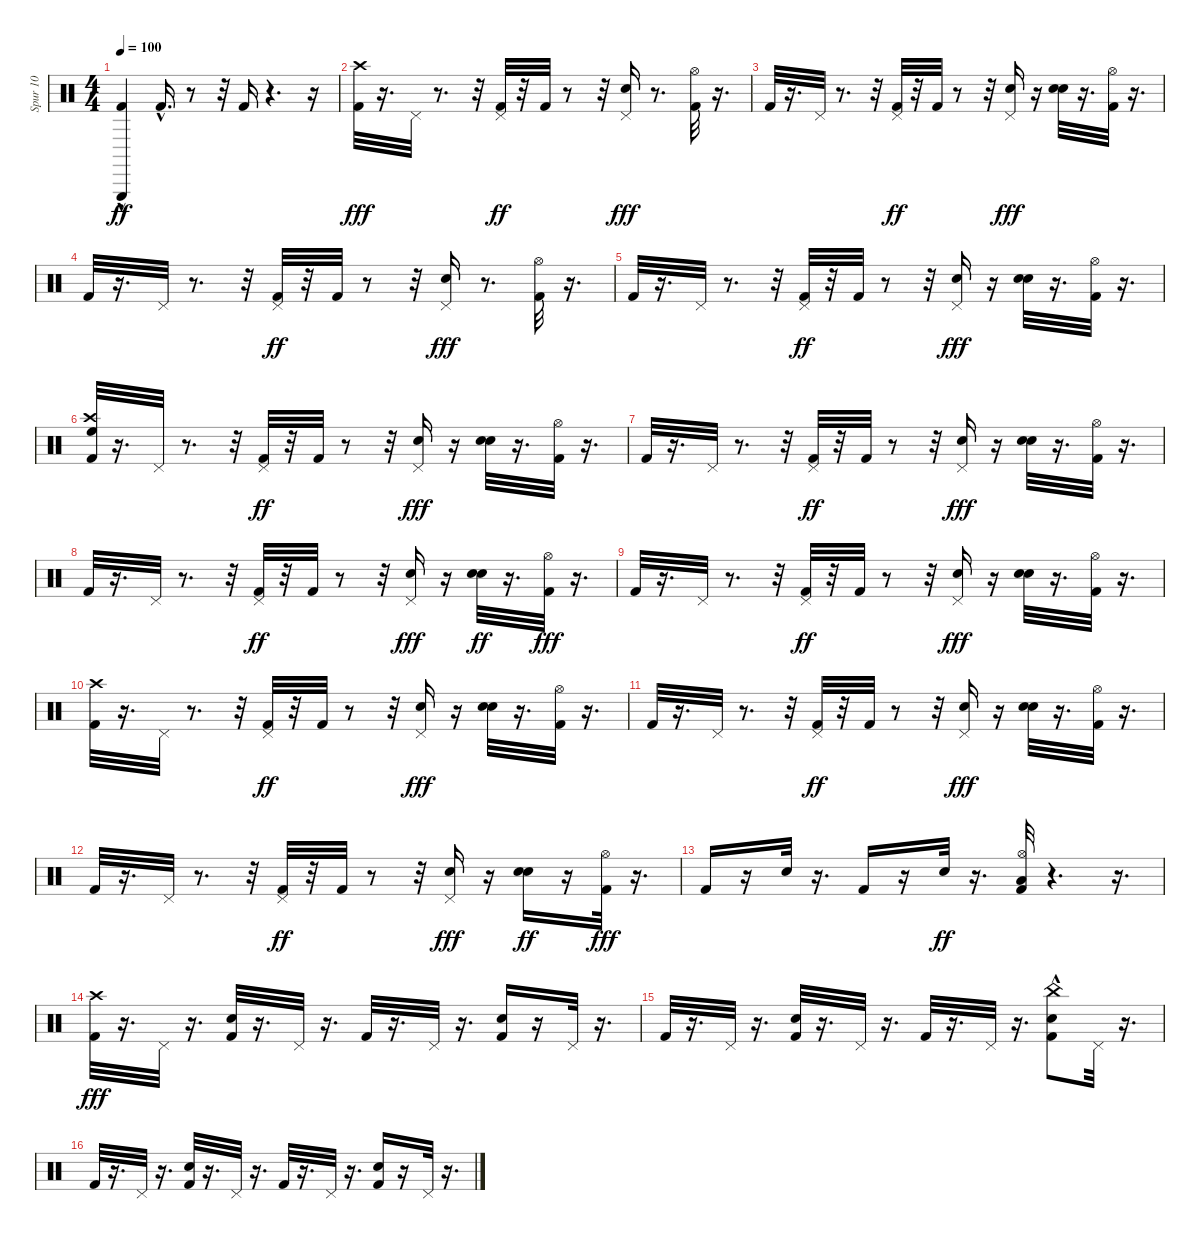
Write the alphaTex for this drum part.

\track ("Spur 10" "Spur 10") {instrument percussion}
\staff {score}
\articulation defaults
\ts (4 4)
\tempo 100
\clef neutral
\ks c
("Kick (hit) 2"{hac} "Triangle (hit)").4{dy ff} "Kick (hit) 2"{hac}.16{d} r.8 r.32 "Kick (hit) 2".16 r.4{d} r.16 |
("Kick (hit) 2" "Crash high (hit)").32{dy fff} r.16{d} "Pedal Hi-Hat (hit)".32 r.8{d} r.32 ("Pedal Hi-Hat (hit)" "Kick (hit) 2").32{dy ff} r.32 "Kick (hit) 2".32 r.8 r.32 ("Hand Clap (hit)" "Pedal Hi-Hat (hit)").16{dy fff} r.8{d} ("Hi-Hat (open)" "Kick (hit) 2").32 r.16{d} |
"Kick (hit) 2".32 r.16{d} "Pedal Hi-Hat (hit)".32 r.8{d} r.32 ("Pedal Hi-Hat (hit)" "Kick (hit) 2").32{dy ff} r.32 "Kick (hit) 2".32 r.8 r.32 ("Hand Clap (hit)" "Pedal Hi-Hat (hit)").16{dy fff} r.16 ("Electric Snare (hit)" "Snare (hit) 2").32 r.16{d} ("Hi-Hat (open)" "Kick (hit) 2").32 r.16{d} |
"Kick (hit) 2".32 r.16{d} "Pedal Hi-Hat (hit)".32 r.8{d} r.32 ("Pedal Hi-Hat (hit)" "Kick (hit) 2").32{dy ff} r.32 "Kick (hit) 2".32 r.8 r.32 ("Hand Clap (hit)" "Pedal Hi-Hat (hit)").16{dy fff} r.8{d} ("Hi-Hat (open)" "Kick (hit) 2").32 r.16{d} |
"Kick (hit) 2".32 r.16{d} "Pedal Hi-Hat (hit)".32 r.8{d} r.32 ("Pedal Hi-Hat (hit)" "Kick (hit) 2").32{dy ff} r.32 "Kick (hit) 2".32 r.8 r.32 ("Hand Clap (hit)" "Pedal Hi-Hat (hit)").16{dy fff} r.16 ("Electric Snare (hit)" "Snare (hit) 2").32 r.16{d} ("Hi-Hat (open)" "Kick (hit) 2").32 r.16{d} |
("Kick (hit) 2" "Crash high (hit)" "High Floor Tom (hit)").32 r.16{d} "Pedal Hi-Hat (hit)".32 r.8{d} r.32 ("Pedal Hi-Hat (hit)" "Kick (hit) 2").32{dy ff} r.32 "Kick (hit) 2".32 r.8 r.32 ("Hand Clap (hit)" "Pedal Hi-Hat (hit)").16{dy fff} r.16 ("Electric Snare (hit)" "Snare (hit) 2").32 r.16{d} ("Hi-Hat (open)" "Kick (hit) 2").32 r.16{d} |
"Kick (hit) 2".32 r.16{d} "Pedal Hi-Hat (hit)".32 r.8{d} r.32 ("Pedal Hi-Hat (hit)" "Kick (hit) 2").32{dy ff} r.32 "Kick (hit) 2".32 r.8 r.32 ("Hand Clap (hit)" "Pedal Hi-Hat (hit)").16{dy fff} r.16 ("Electric Snare (hit)" "Snare (hit) 2").32 r.16{d} ("Hi-Hat (open)" "Kick (hit) 2").32 r.16{d} |
"Kick (hit) 2".32 r.16{d} "Pedal Hi-Hat (hit)".32 r.8{d} r.32 ("Pedal Hi-Hat (hit)" "Kick (hit) 2").32{dy ff} r.32 "Kick (hit) 2".32 r.8 r.32 ("Hand Clap (hit)" "Pedal Hi-Hat (hit)").16{dy fff} r.16 ("Electric Snare (hit)" "Snare (hit) 2").32{dy ff} r.16{d} ("Hi-Hat (open)" "Kick (hit) 2").32{dy fff} r.16{d} |
"Kick (hit) 2".32 r.16{d} "Pedal Hi-Hat (hit)".32 r.8{d} r.32 ("Pedal Hi-Hat (hit)" "Kick (hit) 2").32{dy ff} r.32 "Kick (hit) 2".32 r.8 r.32 ("Hand Clap (hit)" "Pedal Hi-Hat (hit)").16{dy fff} r.16 ("Electric Snare (hit)" "Snare (hit) 2").32 r.16{d} ("Hi-Hat (open)" "Kick (hit) 2").32 r.16{d} |
("Kick (hit) 2" "Crash high (hit)").32 r.16{d} "Pedal Hi-Hat (hit)".32 r.8{d} r.32 ("Pedal Hi-Hat (hit)" "Kick (hit) 2").32{dy ff} r.32 "Kick (hit) 2".32 r.8 r.32 ("Hand Clap (hit)" "Pedal Hi-Hat (hit)").16{dy fff} r.16 ("Snare (hit) 2" "Electric Snare (hit)").32 r.16{d} ("Hi-Hat (open)" "Kick (hit) 2").32 r.16{d} |
"Kick (hit) 2".32 r.16{d} "Pedal Hi-Hat (hit)".32 r.8{d} r.32 ("Pedal Hi-Hat (hit)" "Kick (hit) 2").32{dy ff} r.32 "Kick (hit) 2".32 r.8 r.32 ("Hand Clap (hit)" "Pedal Hi-Hat (hit)").16{dy fff} r.16 ("Snare (hit) 2" "Electric Snare (hit)").32 r.16{d} ("Hi-Hat (open)" "Kick (hit) 2").32 r.16{d} |
"Kick (hit) 2".32 r.16{d} "Pedal Hi-Hat (hit)".32 r.8{d} r.32 ("Pedal Hi-Hat (hit)" "Kick (hit) 2").32{dy ff} r.32 "Kick (hit) 2".32 r.8 r.32 ("Hand Clap (hit)" "Pedal Hi-Hat (hit)").16{dy fff} r.16 ("Electric Snare (hit)" "Snare (hit) 2").16{dy ff} r.16 ("Hi-Hat (open)" "Kick (hit) 2").32{dy fff} r.16{d} |
"Kick (hit) 2".16 r.16 "Electric Snare (hit)".32 r.16{d} "Kick (hit) 2".16 r.16 "Electric Snare (hit)".32{dy ff} r.16{d} ("Kick (hit) 2" "Hi-Hat (open)" "Low Tom (hit)").32 r.4{d} r.16{d} |
("Kick (hit) 2" "Crash high (hit)").32{dy fff} r.16{d} "Pedal Hi-Hat (hit)".32 r.16{d} ("Electric Snare (hit)" "Kick (hit) 2").32 r.16{d} "Pedal Hi-Hat (hit)".32 r.16{d} "Kick (hit) 2".32 r.16{d} "Pedal Hi-Hat (hit)".32 r.16{d} ("Electric Snare (hit)" "Kick (hit) 2").16 r.16 "Pedal Hi-Hat (hit)".32 r.16{d} |
"Kick (hit) 2".32 r.16{d} "Pedal Hi-Hat (hit)".32 r.16{d} ("Electric Snare (hit)" "Kick (hit) 2").32 r.16{d} "Pedal Hi-Hat (hit)".32 r.16{d} "Kick (hit) 2".32 r.16{d} "Pedal Hi-Hat (hit)".32 r.16{d} ("Electric Snare (hit)" "Kick (hit) 2" "China (hit)"{hac}).8 "Pedal Hi-Hat (hit)".32 r.16{d} |
"Kick (hit) 2".32 r.16{d} "Pedal Hi-Hat (hit)".32 r.16{d} ("Electric Snare (hit)" "Kick (hit) 2").32 r.16{d} "Pedal Hi-Hat (hit)".32 r.16{d} "Kick (hit) 2".32 r.16{d} "Pedal Hi-Hat (hit)".32 r.16{d} ("Electric Snare (hit)" "Kick (hit) 2").16 r.16 "Pedal Hi-Hat (hit)".32 r.16{d}
